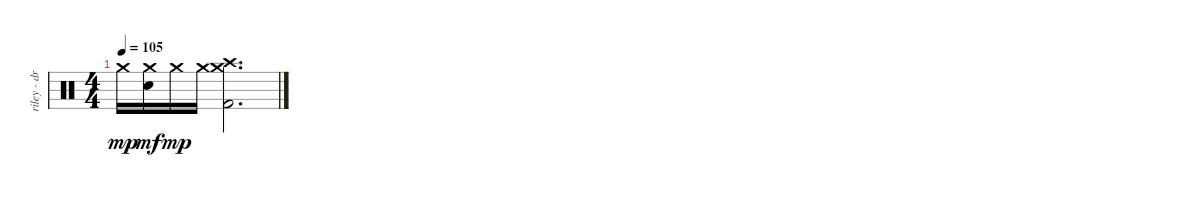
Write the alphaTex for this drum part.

\track ("riley - drums" "riley - dr") {instrument percussion}
\staff {score}
\articulation defaults
\ts (4 4)
\tempo 105
\clef neutral
\ks c "Crash medium (hit)".16{dy mp}
("Electric Snare (hit)" "Crash medium (hit)").16{dy mf} "Crash medium (hit)".16{dy mp} "Crash medium (hit)".16 ("Kick (hit) 2" "Crash medium (hit)" "Crash high (hit)").2{d}
